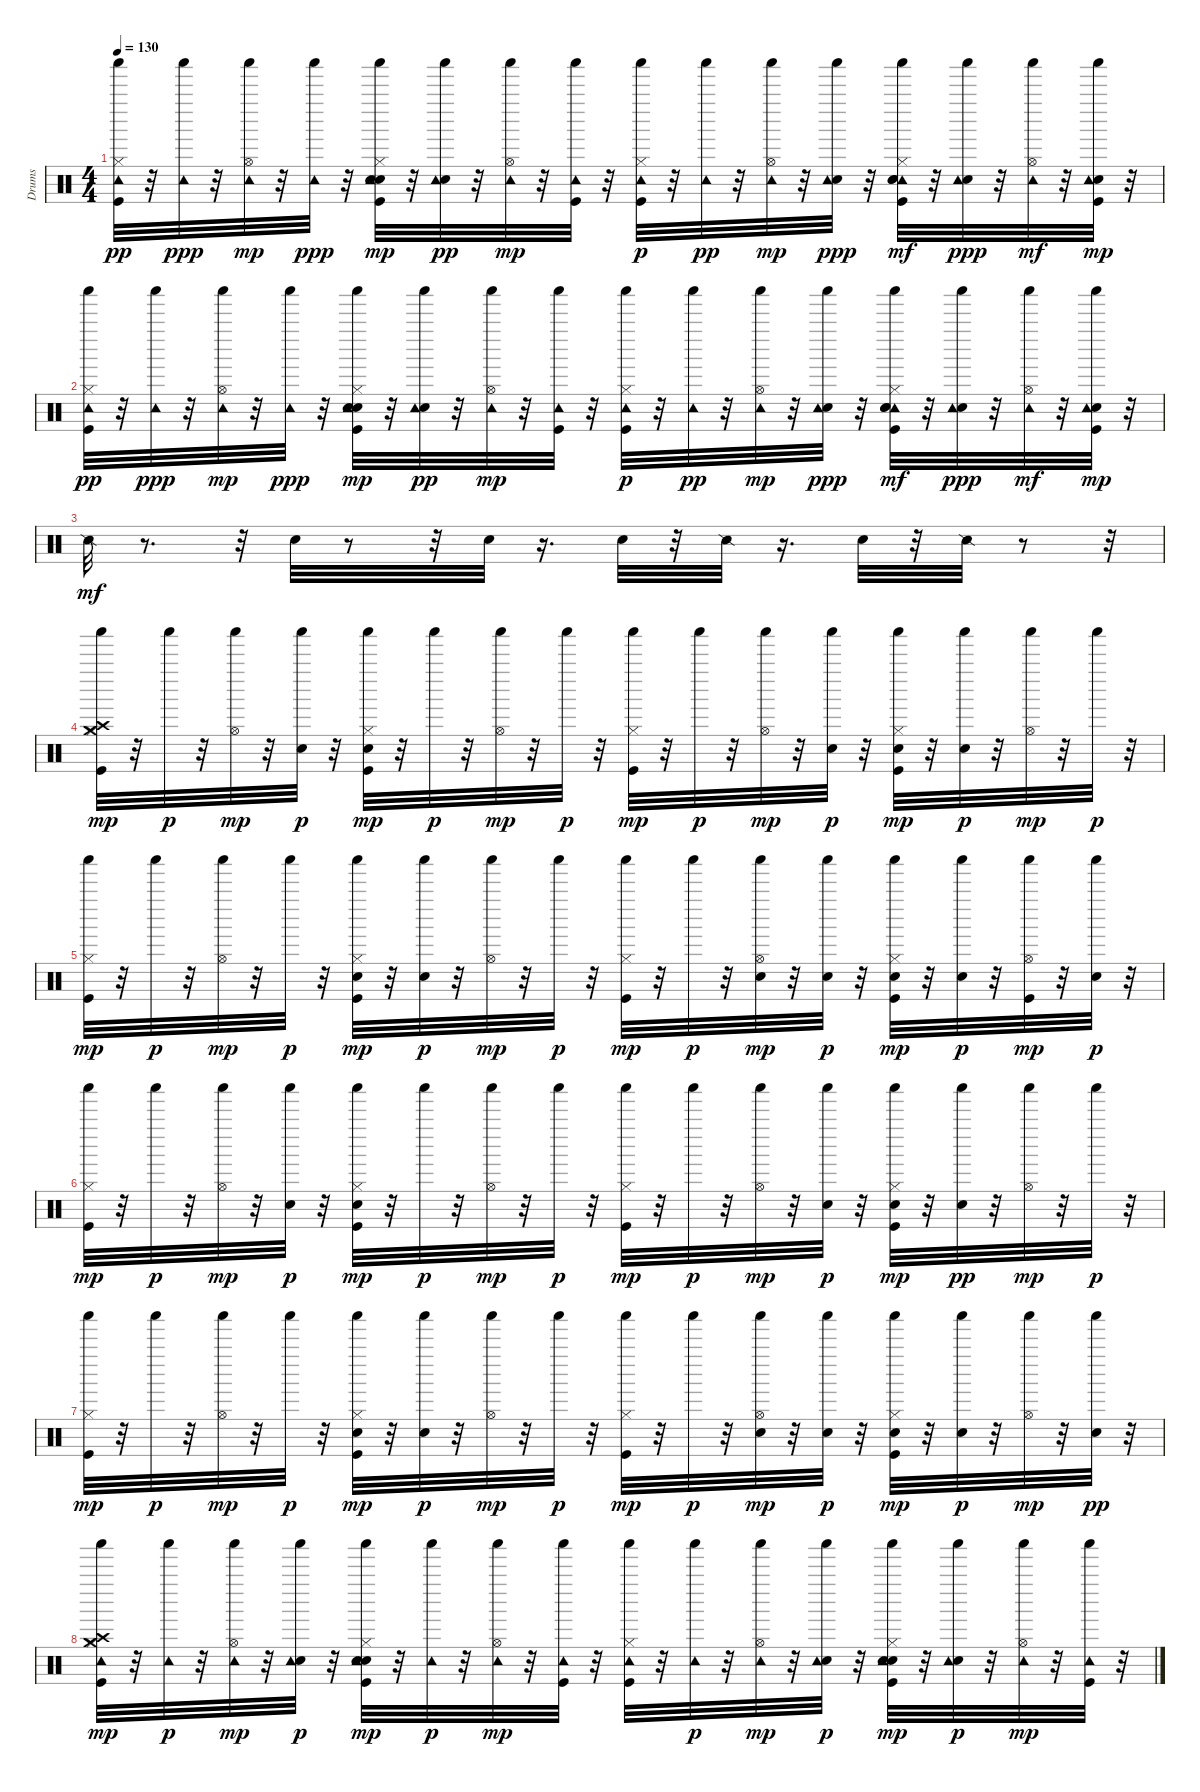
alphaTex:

\track ("Drums" "Drums") {instrument percussion}
\staff {score}
\articulation defaults
\ts (4 4)
\tempo 130
\clef neutral
\ks c
("Kick (hit)" "Shaker (hit)" "Hi-Hat (closed)" "Tambourine (hit)").32{dy pp} r.32 ("Shaker (hit)" "Tambourine (hit)").32{dy ppp} r.32 ("Shaker (hit)" "Hi-Hat (open)" "Tambourine (hit)").32{dy mp} r.32 ("Shaker (hit)" "Tambourine (hit)").32{dy ppp} r.32 ("Kick (hit)" "Shaker (hit)" "Hi-Hat (closed)" "Hand Clap (hit)" "Tambourine (hit)" "Snare (hit) 2").32{dy mp} r.32 ("Shaker (hit)" "Electric Snare (hit)" "Tambourine (hit)").32{dy pp} r.32 ("Shaker (hit)" "Hi-Hat (open)" "Tambourine (hit)").32{dy mp} r.32 ("Shaker (hit)" "Tambourine (hit)" "Kick (hit)").32 r.32 ("Kick (hit)" "Shaker (hit)" "Hi-Hat (closed)" "Tambourine (hit)").32{dy p} r.32 ("Shaker (hit)" "Tambourine (hit)").32{dy pp} r.32 ("Shaker (hit)" "Hi-Hat (open)" "Tambourine (hit)").32{dy mp} r.32 ("Shaker (hit)" "Electric Snare (hit)" "Tambourine (hit)").32{dy ppp} r.32 ("Kick (hit)" "Shaker (hit)" "Hi-Hat (closed)" "Tambourine (hit)" "Snare (hit) 2" "Hand Clap (hit)").32{dy mf} r.32 ("Shaker (hit)" "Electric Snare (hit)" "Tambourine (hit)").32{dy ppp} r.32 ("Shaker (hit)" "Hi-Hat (open)" "Tambourine (hit)").32{dy mf} r.32 ("Shaker (hit)" "Electric Snare (hit)" "Tambourine (hit)" "Kick (hit)").32{dy mp} r.32 |
("Kick (hit)" "Shaker (hit)" "Hi-Hat (closed)" "Tambourine (hit)").32{dy pp} r.32 ("Shaker (hit)" "Tambourine (hit)").32{dy ppp} r.32 ("Shaker (hit)" "Hi-Hat (open)" "Tambourine (hit)").32{dy mp} r.32 ("Shaker (hit)" "Tambourine (hit)").32{dy ppp} r.32 ("Kick (hit)" "Shaker (hit)" "Hi-Hat (closed)" "Hand Clap (hit)" "Tambourine (hit)" "Snare (hit) 2").32{dy mp} r.32 ("Shaker (hit)" "Electric Snare (hit)" "Tambourine (hit)").32{dy pp} r.32 ("Shaker (hit)" "Hi-Hat (open)" "Tambourine (hit)").32{dy mp} r.32 ("Shaker (hit)" "Tambourine (hit)" "Kick (hit)").32 r.32 ("Kick (hit)" "Shaker (hit)" "Hi-Hat (closed)" "Tambourine (hit)").32{dy p} r.32 ("Shaker (hit)" "Tambourine (hit)").32{dy pp} r.32 ("Shaker (hit)" "Hi-Hat (open)" "Tambourine (hit)").32{dy mp} r.32 ("Shaker (hit)" "Electric Snare (hit)" "Tambourine (hit)").32{dy ppp} r.32 ("Kick (hit)" "Shaker (hit)" "Hi-Hat (closed)" "Tambourine (hit)" "Snare (hit) 2" "Hand Clap (hit)").32{dy mf} r.32 ("Shaker (hit)" "Electric Snare (hit)" "Tambourine (hit)").32{dy ppp} r.32 ("Shaker (hit)" "Hi-Hat (open)" "Tambourine (hit)").32{dy mf} r.32 ("Shaker (hit)" "Electric Snare (hit)" "Tambourine (hit)" "Kick (hit)").32{dy mp} r.32 |
"Snare (side stick) 2".32{dy mf} r.8{d} r.32 "Snare (hit) 2".32 r.8 r.32 "Snare (hit) 2".32 r.16{d} "Snare (hit) 2".32 r.32 "Snare (side stick) 2".32 r.16{d} "Snare (hit) 2".32 r.32 "Snare (side stick) 2".32 r.8 r.32 |
("Kick (hit)" "Hi-Hat (closed)" "Crash high (hit)" "Crash medium (hit)" "Shaker (hit)").32{dy mp} r.32 "Shaker (hit)".32{dy p} r.32 ("Hi-Hat (open)" "Shaker (hit)").32{dy mp} r.32 ("Electric Snare (hit)" "Shaker (hit)").32{dy p} r.32 ("Kick (hit)" "Hi-Hat (closed)" "Hand Clap (hit)" "Shaker (hit)").32{dy mp} r.32 "Shaker (hit)".32{dy p} r.32 ("Hi-Hat (open)" "Shaker (hit)").32{dy mp} r.32 "Shaker (hit)".32{dy p} r.32 ("Kick (hit)" "Hi-Hat (closed)" "Shaker (hit)").32{dy mp} r.32 "Shaker (hit)".32{dy p} r.32 ("Hi-Hat (open)" "Shaker (hit)").32{dy mp} r.32 ("Electric Snare (hit)" "Shaker (hit)").32{dy p} r.32 ("Kick (hit)" "Hi-Hat (closed)" "Hand Clap (hit)" "Shaker (hit)").32{dy mp} r.32 ("Electric Snare (hit)" "Shaker (hit)").32{dy p} r.32 ("Hi-Hat (open)" "Shaker (hit)").32{dy mp} r.32 "Shaker (hit)".32{dy p} r.32 |
("Kick (hit)" "Hi-Hat (closed)" "Shaker (hit)").32{dy mp} r.32 "Shaker (hit)".32{dy p} r.32 ("Hi-Hat (open)" "Shaker (hit)").32{dy mp} r.32 "Shaker (hit)".32{dy p} r.32 ("Kick (hit)" "Hi-Hat (closed)" "Hand Clap (hit)" "Shaker (hit)").32{dy mp} r.32 ("Electric Snare (hit)" "Shaker (hit)").32{dy p} r.32 ("Hi-Hat (open)" "Shaker (hit)").32{dy mp} r.32 "Shaker (hit)".32{dy p} r.32 ("Kick (hit)" "Hi-Hat (closed)" "Shaker (hit)").32{dy mp} r.32 "Shaker (hit)".32{dy p} r.32 ("Hand Clap (hit)" "Hi-Hat (open)" "Shaker (hit)").32{dy mp} r.32 ("Electric Snare (hit)" "Shaker (hit)").32{dy p} r.32 ("Kick (hit)" "Hi-Hat (closed)" "Hand Clap (hit)" "Shaker (hit)").32{dy mp} r.32 ("Electric Snare (hit)" "Shaker (hit)").32{dy p} r.32 ("Kick (hit)" "Hi-Hat (open)" "Shaker (hit)").32{dy mp} r.32 ("Electric Snare (hit)" "Shaker (hit)").32{dy p} r.32 |
("Kick (hit)" "Shaker (hit)" "Hi-Hat (closed)").32{dy mp} r.32 "Shaker (hit)".32{dy p} r.32 ("Shaker (hit)" "Hi-Hat (open)").32{dy mp} r.32 ("Shaker (hit)" "Electric Snare (hit)").32{dy p} r.32 ("Kick (hit)" "Shaker (hit)" "Hi-Hat (closed)" "Hand Clap (hit)").32{dy mp} r.32 "Shaker (hit)".32{dy p} r.32 ("Shaker (hit)" "Hi-Hat (open)").32{dy mp} r.32 "Shaker (hit)".32{dy p} r.32 ("Kick (hit)" "Shaker (hit)" "Hi-Hat (closed)").32{dy mp} r.32 "Shaker (hit)".32{dy p} r.32 ("Shaker (hit)" "Hi-Hat (open)").32{dy mp} r.32 ("Shaker (hit)" "Electric Snare (hit)").32{dy p} r.32 ("Kick (hit)" "Shaker (hit)" "Hi-Hat (closed)" "Hand Clap (hit)").32{dy mp} r.32 ("Shaker (hit)" "Electric Snare (hit)").32{dy pp} r.32 ("Shaker (hit)" "Hi-Hat (open)").32{dy mp} r.32 "Shaker (hit)".32{dy p} r.32 |
("Kick (hit)" "Shaker (hit)" "Hi-Hat (closed)").32{dy mp} r.32 "Shaker (hit)".32{dy p} r.32 ("Shaker (hit)" "Hi-Hat (open)").32{dy mp} r.32 "Shaker (hit)".32{dy p} r.32 ("Kick (hit)" "Shaker (hit)" "Hi-Hat (closed)" "Hand Clap (hit)").32{dy mp} r.32 ("Shaker (hit)" "Electric Snare (hit)").32{dy p} r.32 ("Shaker (hit)" "Hi-Hat (open)").32{dy mp} r.32 "Shaker (hit)".32{dy p} r.32 ("Kick (hit)" "Shaker (hit)" "Hi-Hat (closed)").32{dy mp} r.32 "Shaker (hit)".32{dy p} r.32 ("Shaker (hit)" "Hand Clap (hit)" "Hi-Hat (open)").32{dy mp} r.32 ("Shaker (hit)" "Electric Snare (hit)").32{dy p} r.32 ("Kick (hit)" "Shaker (hit)" "Hi-Hat (closed)" "Hand Clap (hit)").32{dy mp} r.32 ("Shaker (hit)" "Electric Snare (hit)").32{dy p} r.32 ("Shaker (hit)" "Hi-Hat (open)").32{dy mp} r.32 ("Shaker (hit)" "Electric Snare (hit)").32{dy pp} r.32 |
("Kick (hit)" "Hi-Hat (closed)" "Crash high (hit)" "Crash medium (hit)" "Tambourine (hit)" "Shaker (hit)").32{dy mp} r.32 ("Tambourine (hit)" "Shaker (hit)").32{dy p} r.32 ("Tambourine (hit)" "Hi-Hat (open)" "Shaker (hit)").32{dy mp} r.32 ("Electric Snare (hit)" "Tambourine (hit)" "Shaker (hit)").32{dy p} r.32 ("Kick (hit)" "Hi-Hat (closed)" "Hand Clap (hit)" "Tambourine (hit)" "Shaker (hit)" "Snare (hit) 2").32{dy mp} r.32 ("Tambourine (hit)" "Shaker (hit)").32{dy p} r.32 ("Tambourine (hit)" "Hi-Hat (open)" "Shaker (hit)").32{dy mp} r.32 ("Tambourine (hit)" "Shaker (hit)" "Kick (hit)").32 r.32 ("Kick (hit)" "Hi-Hat (closed)" "Tambourine (hit)" "Shaker (hit)").32 r.32 ("Tambourine (hit)" "Shaker (hit)").32{dy p} r.32 ("Tambourine (hit)" "Hi-Hat (open)" "Shaker (hit)").32{dy mp} r.32 ("Electric Snare (hit)" "Tambourine (hit)" "Shaker (hit)").32{dy p} r.32 ("Kick (hit)" "Hi-Hat (closed)" "Hand Clap (hit)" "Tambourine (hit)" "Shaker (hit)" "Snare (hit) 2").32{dy mp} r.32 ("Electric Snare (hit)" "Tambourine (hit)" "Shaker (hit)").32{dy p} r.32 ("Tambourine (hit)" "Hi-Hat (open)" "Shaker (hit)").32{dy mp} r.32 ("Tambourine (hit)" "Shaker (hit)" "Kick (hit)").32 r.32
